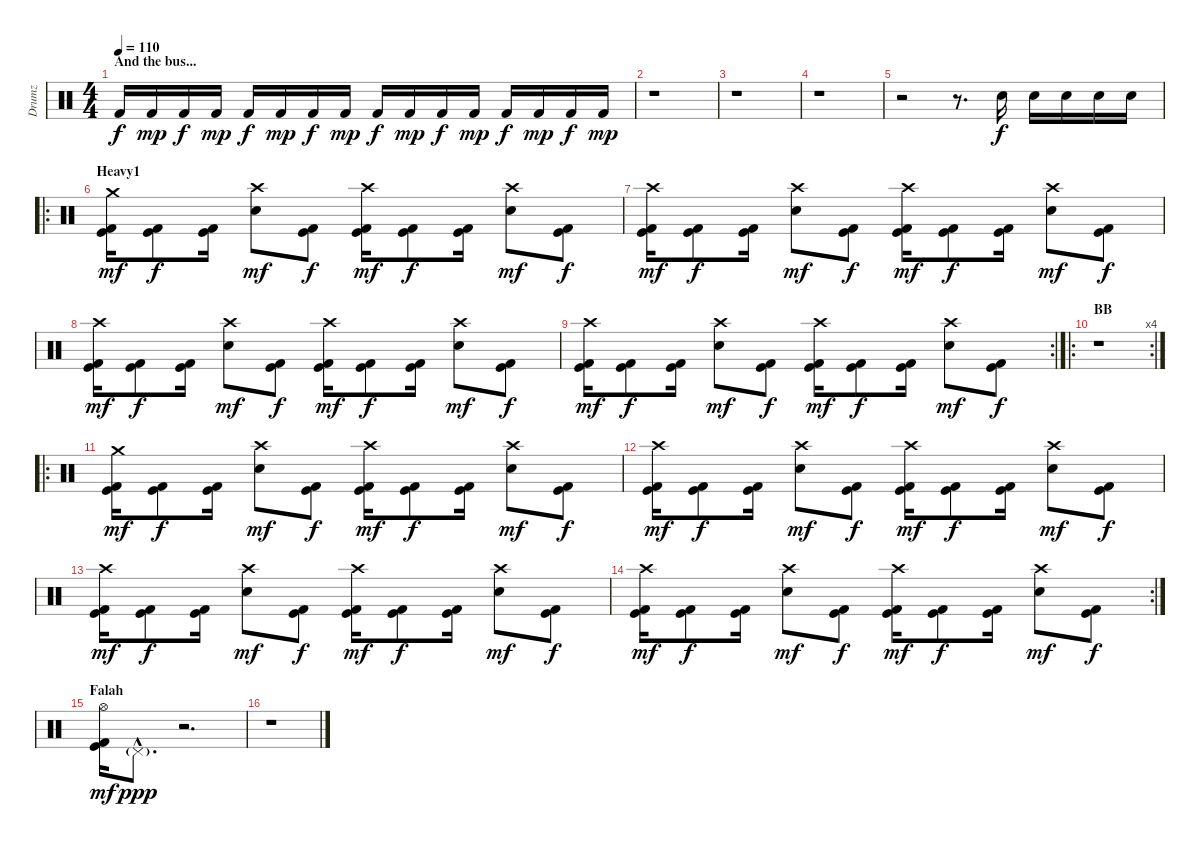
\track ("Drumz" "Drumz") {instrument percussion}
\staff {score}
\articulation defaults
\ts (4 4)
\section ("" "And the bus...")
\tempo 110
\clef neutral
\ks c "Kick (hit) 2".16{dy f} "Kick (hit) 2".16{dy mp} "Kick (hit) 2".16{dy f} "Kick (hit) 2".16{dy mp} "Kick (hit) 2".16{dy f} "Kick (hit) 2".16{dy mp} "Kick (hit) 2".16{dy f} "Kick (hit) 2".16{dy mp} "Kick (hit) 2".16{dy f} "Kick (hit) 2".16{dy mp} "Kick (hit) 2".16{dy f} "Kick (hit) 2".16{dy mp} "Kick (hit) 2".16{dy f} "Kick (hit) 2".16{dy mp} "Kick (hit) 2".16{dy f} "Kick (hit) 2".16{dy mp}
|
r.1 |
r.1 |
r.1 |
r.2 r.8{d} "Snare (hit) 2".16{dy f} "Snare (hit) 2".16 "Snare (hit) 2".16 "Snare (hit) 2".16 "Snare (hit) 2".16 |
\ro
\section ("" "Heavy1")
("Kick (hit) 2" "Kick (hit)" "Crash medium (hit)").16{dy mf} ("Kick (hit) 2" "Kick (hit)").8{dy f} ("Kick (hit) 2" "Kick (hit)").16 ("Snare (hit) 2" "Crash high (hit)").8{dy mf} ("Kick (hit) 2" "Kick (hit)").8{dy f} ("Kick (hit) 2" "Kick (hit)" "Crash high (hit)").16{dy mf} ("Kick (hit) 2" "Kick (hit)").8{dy f} ("Kick (hit) 2" "Kick (hit)").16 ("Snare (hit) 2" "Crash high (hit)").8{dy mf} ("Kick (hit) 2" "Kick (hit)").8{dy f} |
("Kick (hit) 2" "Kick (hit)" "Crash high (hit)").16{dy mf} ("Kick (hit) 2" "Kick (hit)").8{dy f} ("Kick (hit) 2" "Kick (hit)").16 ("Snare (hit) 2" "Crash high (hit)").8{dy mf} ("Kick (hit) 2" "Kick (hit)").8{dy f} ("Kick (hit) 2" "Kick (hit)" "Crash high (hit)").16{dy mf} ("Kick (hit) 2" "Kick (hit)").8{dy f} ("Kick (hit) 2" "Kick (hit)").16 ("Snare (hit) 2" "Crash high (hit)").8{dy mf} ("Kick (hit) 2" "Kick (hit)").8{dy f} |
("Kick (hit) 2" "Kick (hit)" "Crash high (hit)").16{dy mf} ("Kick (hit) 2" "Kick (hit)").8{dy f} ("Kick (hit) 2" "Kick (hit)").16 ("Snare (hit) 2" "Crash high (hit)").8{dy mf} ("Kick (hit) 2" "Kick (hit)").8{dy f} ("Kick (hit) 2" "Kick (hit)" "Crash high (hit)").16{dy mf} ("Kick (hit) 2" "Kick (hit)").8{dy f} ("Kick (hit) 2" "Kick (hit)").16 ("Snare (hit) 2" "Crash high (hit)").8{dy mf} ("Kick (hit) 2" "Kick (hit)").8{dy f} |
\rc 2
("Kick (hit) 2" "Kick (hit)" "Crash high (hit)").16{dy mf} ("Kick (hit) 2" "Kick (hit)").8{dy f} ("Kick (hit) 2" "Kick (hit)").16 ("Snare (hit) 2" "Crash high (hit)").8{dy mf} ("Kick (hit) 2" "Kick (hit)").8{dy f} ("Kick (hit) 2" "Kick (hit)" "Crash high (hit)").16{dy mf} ("Kick (hit) 2" "Kick (hit)").8{dy f} ("Kick (hit) 2" "Kick (hit)").16 ("Snare (hit) 2" "Crash high (hit)").8{dy mf} ("Kick (hit) 2" "Kick (hit)").8{dy f} |
\ro
\rc 4
\section ("" "BB")
r.1 |
\ro
("Kick (hit) 2" "Kick (hit)" "Crash medium (hit)").16{dy mf} ("Kick (hit) 2" "Kick (hit)").8{dy f} ("Kick (hit) 2" "Kick (hit)").16 ("Snare (hit) 2" "Crash high (hit)").8{dy mf} ("Kick (hit) 2" "Kick (hit)").8{dy f} ("Kick (hit) 2" "Kick (hit)" "Crash high (hit)").16{dy mf} ("Kick (hit) 2" "Kick (hit)").8{dy f} ("Kick (hit) 2" "Kick (hit)").16 ("Snare (hit) 2" "Crash high (hit)").8{dy mf} ("Kick (hit) 2" "Kick (hit)").8{dy f} |
("Kick (hit) 2" "Kick (hit)" "Crash high (hit)").16{dy mf} ("Kick (hit) 2" "Kick (hit)").8{dy f} ("Kick (hit) 2" "Kick (hit)").16 ("Snare (hit) 2" "Crash high (hit)").8{dy mf} ("Kick (hit) 2" "Kick (hit)").8{dy f} ("Kick (hit) 2" "Kick (hit)" "Crash high (hit)").16{dy mf} ("Kick (hit) 2" "Kick (hit)").8{dy f} ("Kick (hit) 2" "Kick (hit)").16 ("Snare (hit) 2" "Crash high (hit)").8{dy mf} ("Kick (hit) 2" "Kick (hit)").8{dy f} |
("Kick (hit) 2" "Kick (hit)" "Crash high (hit)").16{dy mf} ("Kick (hit) 2" "Kick (hit)").8{dy f} ("Kick (hit) 2" "Kick (hit)").16 ("Snare (hit) 2" "Crash high (hit)").8{dy mf} ("Kick (hit) 2" "Kick (hit)").8{dy f} ("Kick (hit) 2" "Kick (hit)" "Crash high (hit)").16{dy mf} ("Kick (hit) 2" "Kick (hit)").8{dy f} ("Kick (hit) 2" "Kick (hit)").16 ("Snare (hit) 2" "Crash high (hit)").8{dy mf} ("Kick (hit) 2" "Kick (hit)").8{dy f} |
\rc 2
("Kick (hit) 2" "Kick (hit)" "Crash high (hit)").16{dy mf} ("Kick (hit) 2" "Kick (hit)").8{dy f} ("Kick (hit) 2" "Kick (hit)").16 ("Snare (hit) 2" "Crash high (hit)").8{dy mf} ("Kick (hit) 2" "Kick (hit)").8{dy f} ("Kick (hit) 2" "Kick (hit)" "Crash high (hit)").16{dy mf} ("Kick (hit) 2" "Kick (hit)").8{dy f} ("Kick (hit) 2" "Kick (hit)").16 ("Snare (hit) 2" "Crash high (hit)").8{dy mf} ("Kick (hit) 2" "Kick (hit)").8{dy f} |
\section ("" "Falah")
("Kick (hit) 2" "Kick (hit)" "Hi-Hat (open)").16{dy mf} "Pedal Hi-Hat (hit)"{g hac}.8{d dy ppp} r.2{d} |
r.1
